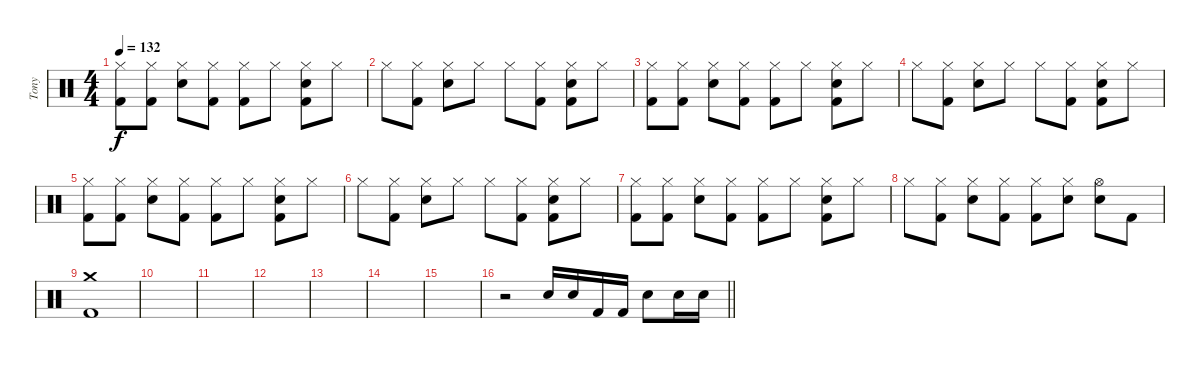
\track ("Tony" "Tony") {instrument percussion}
\staff {score}
\articulation defaults
\ts (4 4)
\tempo 132
\clef neutral
\ks c
("Hi-Hat (closed)" "Kick (hit) 2").8{dy f} ("Hi-Hat (closed)" "Kick (hit) 2").8 ("Hi-Hat (closed)" "Electric Snare (hit)").8 ("Hi-Hat (closed)" "Kick (hit) 2").8 ("Hi-Hat (closed)" "Kick (hit) 2").8 "Hi-Hat (closed)".8 ("Hi-Hat (closed)" "Electric Snare (hit)" "Kick (hit) 2").8 "Hi-Hat (closed)".8 |
"Hi-Hat (closed)".8 ("Hi-Hat (closed)" "Kick (hit) 2").8 ("Hi-Hat (closed)" "Electric Snare (hit)").8 "Hi-Hat (closed)".8 "Hi-Hat (closed)".8 ("Hi-Hat (closed)" "Kick (hit) 2").8 ("Hi-Hat (closed)" "Kick (hit) 2" "Electric Snare (hit)").8 "Hi-Hat (closed)".8 |
("Hi-Hat (closed)" "Kick (hit) 2").8 ("Hi-Hat (closed)" "Kick (hit) 2").8 ("Hi-Hat (closed)" "Electric Snare (hit)").8 ("Hi-Hat (closed)" "Kick (hit) 2").8 ("Hi-Hat (closed)" "Kick (hit) 2").8 "Hi-Hat (closed)".8 ("Hi-Hat (closed)" "Electric Snare (hit)" "Kick (hit) 2").8 "Hi-Hat (closed)".8 |
"Hi-Hat (closed)".8 ("Hi-Hat (closed)" "Kick (hit) 2").8 ("Hi-Hat (closed)" "Electric Snare (hit)").8 "Hi-Hat (closed)".8 "Hi-Hat (closed)".8 ("Hi-Hat (closed)" "Kick (hit) 2").8 ("Hi-Hat (closed)" "Kick (hit) 2" "Electric Snare (hit)").8 "Hi-Hat (closed)".8 |
("Hi-Hat (closed)" "Kick (hit) 2").8 ("Hi-Hat (closed)" "Kick (hit) 2").8 ("Hi-Hat (closed)" "Electric Snare (hit)").8 ("Hi-Hat (closed)" "Kick (hit) 2").8 ("Hi-Hat (closed)" "Kick (hit) 2").8 "Hi-Hat (closed)".8 ("Hi-Hat (closed)" "Electric Snare (hit)" "Kick (hit) 2").8 "Hi-Hat (closed)".8 |
"Hi-Hat (closed)".8 ("Hi-Hat (closed)" "Kick (hit) 2").8 ("Hi-Hat (closed)" "Electric Snare (hit)").8 "Hi-Hat (closed)".8 "Hi-Hat (closed)".8 ("Hi-Hat (closed)" "Kick (hit) 2").8 ("Hi-Hat (closed)" "Kick (hit) 2" "Electric Snare (hit)").8 "Hi-Hat (closed)".8 |
("Hi-Hat (closed)" "Kick (hit) 2").8 ("Hi-Hat (closed)" "Kick (hit) 2").8 ("Hi-Hat (closed)" "Electric Snare (hit)").8 ("Hi-Hat (closed)" "Kick (hit) 2").8 ("Hi-Hat (closed)" "Kick (hit) 2").8 "Hi-Hat (closed)".8 ("Hi-Hat (closed)" "Electric Snare (hit)" "Kick (hit) 2").8 "Hi-Hat (closed)".8 |
"Hi-Hat (closed)".8 ("Hi-Hat (closed)" "Kick (hit) 2").8 ("Hi-Hat (closed)" "Electric Snare (hit)").8 ("Hi-Hat (closed)" "Kick (hit) 2").8 ("Hi-Hat (closed)" "Kick (hit) 2").8 ("Hi-Hat (closed)" "Electric Snare (hit)").8 ("Hi-Hat (open)" "Electric Snare (hit)").8 "Kick (hit) 2".8 |
("Crash medium (hit)" "Kick (hit) 2").1 |
|
|
|
|
|
|
\barLineRight lightlight
r.2 "Electric Snare (hit)".16 "Electric Snare (hit)".16 "Kick (hit) 2".16 "Kick (hit) 2".16 "Electric Snare (hit)".8 "Electric Snare (hit)".16 "Electric Snare (hit)".16
